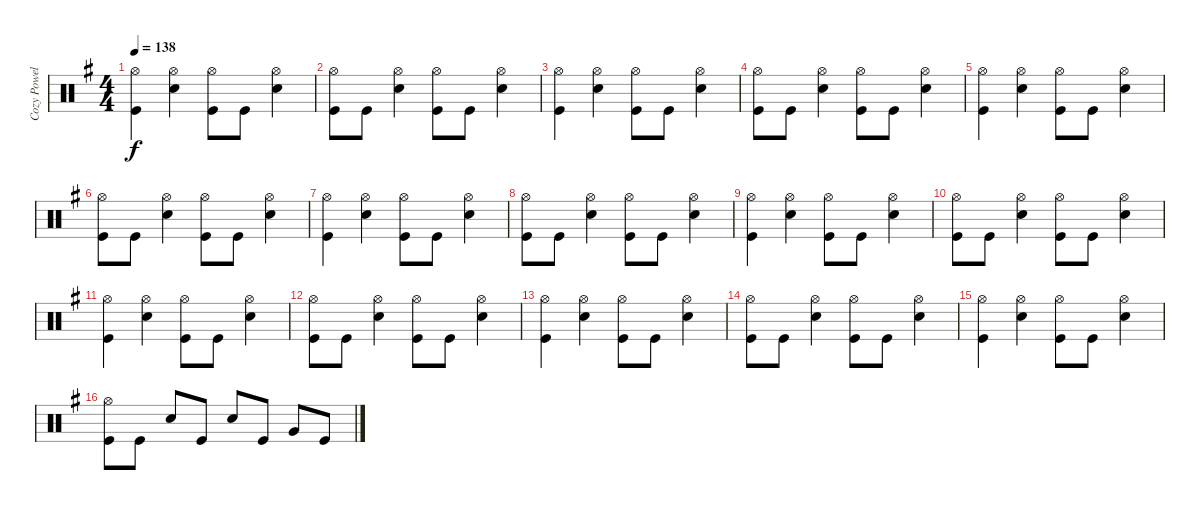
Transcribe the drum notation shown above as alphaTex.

\track ("Cozy Powell Drums" "Cozy Powel") {instrument percussion}
\staff {score}
\articulation defaults
\ts (4 4)
\tempo 138
\clef neutral
\ks g
("Hi-Hat (open)" "Kick (hit)").4{dy f} ("Hi-Hat (open)" "Snare (hit) 2").4 ("Hi-Hat (open)" "Kick (hit)").8 "Kick (hit)".8 ("Hi-Hat (open)" "Snare (hit) 2").4 |
("Hi-Hat (open)" "Kick (hit)").8 "Kick (hit)".8 ("Hi-Hat (open)" "Snare (hit) 2").4 ("Hi-Hat (open)" "Kick (hit)").8 "Kick (hit)".8 ("Hi-Hat (open)" "Snare (hit) 2").4 |
("Hi-Hat (open)" "Kick (hit)").4 ("Hi-Hat (open)" "Snare (hit) 2").4 ("Hi-Hat (open)" "Kick (hit)").8 "Kick (hit)".8 ("Hi-Hat (open)" "Snare (hit) 2").4 |
("Hi-Hat (open)" "Kick (hit)").8 "Kick (hit)".8 ("Hi-Hat (open)" "Snare (hit) 2").4 ("Hi-Hat (open)" "Kick (hit)").8 "Kick (hit)".8 ("Hi-Hat (open)" "Snare (hit) 2").4 |
("Hi-Hat (open)" "Kick (hit)").4 ("Hi-Hat (open)" "Snare (hit) 2").4 ("Hi-Hat (open)" "Kick (hit)").8 "Kick (hit)".8 ("Hi-Hat (open)" "Snare (hit) 2").4 |
("Hi-Hat (open)" "Kick (hit)").8 "Kick (hit)".8 ("Hi-Hat (open)" "Snare (hit) 2").4 ("Hi-Hat (open)" "Kick (hit)").8 "Kick (hit)".8 ("Hi-Hat (open)" "Snare (hit) 2").4 |
("Hi-Hat (open)" "Kick (hit)").4 ("Hi-Hat (open)" "Snare (hit) 2").4 ("Hi-Hat (open)" "Kick (hit)").8 "Kick (hit)".8 ("Hi-Hat (open)" "Snare (hit) 2").4 |
("Hi-Hat (open)" "Kick (hit)").8 "Kick (hit)".8 ("Hi-Hat (open)" "Snare (hit) 2").4 ("Hi-Hat (open)" "Kick (hit)").8 "Kick (hit)".8 ("Hi-Hat (open)" "Snare (hit) 2").4 |
("Hi-Hat (open)" "Kick (hit)").4 ("Hi-Hat (open)" "Snare (hit) 2").4 ("Hi-Hat (open)" "Kick (hit)").8 "Kick (hit)".8 ("Hi-Hat (open)" "Snare (hit) 2").4 |
("Hi-Hat (open)" "Kick (hit)").8 "Kick (hit)".8 ("Hi-Hat (open)" "Snare (hit) 2").4 ("Hi-Hat (open)" "Kick (hit)").8 "Kick (hit)".8 ("Hi-Hat (open)" "Snare (hit) 2").4 |
("Hi-Hat (open)" "Kick (hit)").4 ("Hi-Hat (open)" "Snare (hit) 2").4 ("Hi-Hat (open)" "Kick (hit)").8 "Kick (hit)".8 ("Hi-Hat (open)" "Snare (hit) 2").4 |
("Hi-Hat (open)" "Kick (hit)").8 "Kick (hit)".8 ("Hi-Hat (open)" "Snare (hit) 2").4 ("Hi-Hat (open)" "Kick (hit)").8 "Kick (hit)".8 ("Hi-Hat (open)" "Snare (hit) 2").4 |
("Hi-Hat (open)" "Kick (hit)").4 ("Hi-Hat (open)" "Snare (hit) 2").4 ("Hi-Hat (open)" "Kick (hit)").8 "Kick (hit)".8 ("Hi-Hat (open)" "Snare (hit) 2").4 |
("Hi-Hat (open)" "Kick (hit)").8 "Kick (hit)".8 ("Hi-Hat (open)" "Snare (hit) 2").4 ("Hi-Hat (open)" "Kick (hit)").8 "Kick (hit)".8 ("Hi-Hat (open)" "Snare (hit) 2").4 |
("Hi-Hat (open)" "Kick (hit)").4 ("Hi-Hat (open)" "Snare (hit) 2").4 ("Hi-Hat (open)" "Kick (hit)").8 "Kick (hit)".8 ("Hi-Hat (open)" "Snare (hit) 2").4 |
("Hi-Hat (open)" "Kick (hit)").8 "Kick (hit)".8 "Snare (hit) 2".8 "Kick (hit)".8 "Snare (hit) 2".8 "Kick (hit)".8 "Very Low Tom (hit)".8 "Kick (hit)".8
